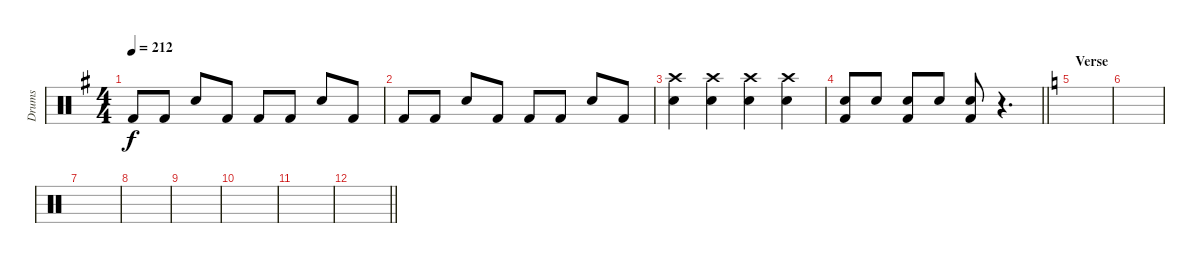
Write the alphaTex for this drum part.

\track ("Drums" "Drums") {instrument percussion}
\staff {score}
\articulation defaults
\ts (4 4)
\tempo 212
\clef neutral
\ks eminor "Kick (hit) 2".8{dy f} "Kick (hit) 2".8 "Snare (hit) 2".8 "Kick (hit) 2".8 "Kick (hit) 2".8 "Kick (hit) 2".8 "Snare (hit) 2".8 "Kick (hit) 2".8
|
"Kick (hit) 2".8 "Kick (hit) 2".8 "Snare (hit) 2".8 "Kick (hit) 2".8 "Kick (hit) 2".8 "Kick (hit) 2".8 "Snare (hit) 2".8 "Kick (hit) 2".8 |
("Crash high (hit)" "Snare (hit) 2").4 ("Crash high (hit)" "Snare (hit) 2").4 ("Crash high (hit)" "Snare (hit) 2").4 ("Crash high (hit)" "Snare (hit) 2").4 |
\barLineRight lightlight
("Snare (hit) 2" "Kick (hit) 2").8 "Snare (hit) 2".8 ("Snare (hit) 2" "Kick (hit) 2").8 "Snare (hit) 2".8 ("Snare (hit) 2" "Kick (hit) 2").8 r.4{d} |
\section ("" "Verse")
\ks c
|
|
|
|
|
|
|
\barLineRight lightlight
